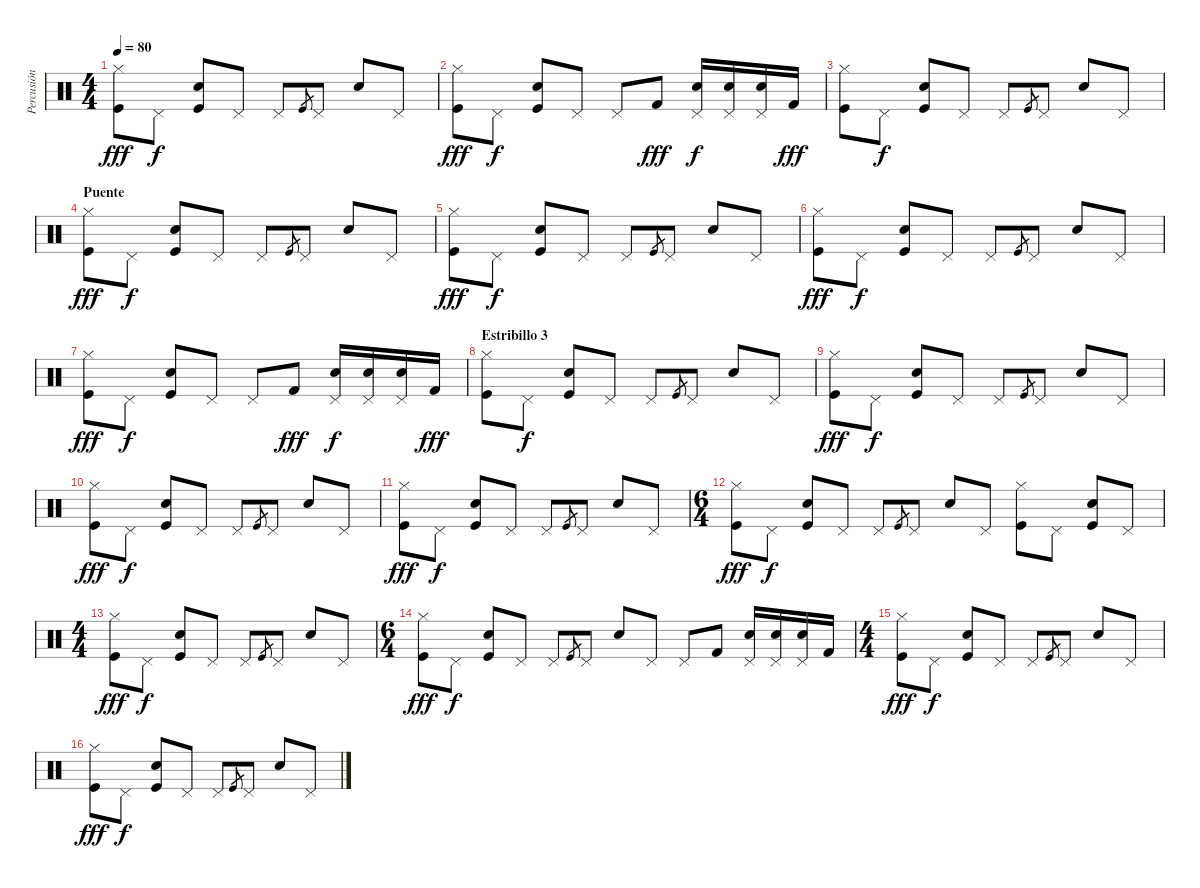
\track ("Percusión (Percussion)" "Percusión ") {instrument percussion}
\staff {score}
\articulation defaults
\ts (4 4)
\tempo 80
\clef neutral
\ks c
("Kick (hit)" "Hi-Hat (closed)").8{dy fff} "Pedal Hi-Hat (hit)".8{dy f} ("Snare (hit) 2" "Kick (hit)").8 "Pedal Hi-Hat (hit)".8 "Pedal Hi-Hat (hit)".8 "Kick (hit)".8{gr} "Pedal Hi-Hat (hit)".8 "Snare (hit) 2".8 "Pedal Hi-Hat (hit)".8 |
("Kick (hit)" "Hi-Hat (closed)").8{dy fff} "Pedal Hi-Hat (hit)".8{dy f} ("Snare (hit) 2" "Kick (hit)").8 "Pedal Hi-Hat (hit)".8 "Pedal Hi-Hat (hit)".8 "Kick (hit) 2".8{dy fff} ("Snare (hit) 2" "Pedal Hi-Hat (hit)").16{dy f} ("Snare (hit) 2" "Pedal Hi-Hat (hit)").16 ("Snare (hit) 2" "Pedal Hi-Hat (hit)").16 "Kick (hit) 2".16{dy fff} |
("Kick (hit)" "Hi-Hat (closed)").8 "Pedal Hi-Hat (hit)".8{dy f} ("Snare (hit) 2" "Kick (hit)").8 "Pedal Hi-Hat (hit)".8 "Pedal Hi-Hat (hit)".8 "Kick (hit)".8{gr} "Pedal Hi-Hat (hit)".8 "Snare (hit) 2".8 "Pedal Hi-Hat (hit)".8 |
\section ("" "Puente")
("Kick (hit)" "Hi-Hat (closed)").8{dy fff} "Pedal Hi-Hat (hit)".8{dy f} ("Snare (hit) 2" "Kick (hit)").8 "Pedal Hi-Hat (hit)".8 "Pedal Hi-Hat (hit)".8 "Kick (hit)".8{gr} "Pedal Hi-Hat (hit)".8 "Snare (hit) 2".8 "Pedal Hi-Hat (hit)".8 |
("Kick (hit)" "Hi-Hat (closed)").8{dy fff} "Pedal Hi-Hat (hit)".8{dy f} ("Snare (hit) 2" "Kick (hit)").8 "Pedal Hi-Hat (hit)".8 "Pedal Hi-Hat (hit)".8 "Kick (hit)".8{gr} "Pedal Hi-Hat (hit)".8 "Snare (hit) 2".8 "Pedal Hi-Hat (hit)".8 |
("Kick (hit)" "Hi-Hat (closed)").8{dy fff} "Pedal Hi-Hat (hit)".8{dy f} ("Snare (hit) 2" "Kick (hit)").8 "Pedal Hi-Hat (hit)".8 "Pedal Hi-Hat (hit)".8 "Kick (hit)".8{gr} "Pedal Hi-Hat (hit)".8 "Snare (hit) 2".8 "Pedal Hi-Hat (hit)".8 |
("Kick (hit)" "Hi-Hat (closed)").8{dy fff} "Pedal Hi-Hat (hit)".8{dy f} ("Snare (hit) 2" "Kick (hit)").8 "Pedal Hi-Hat (hit)".8 "Pedal Hi-Hat (hit)".8 "Kick (hit) 2".8{dy fff} ("Snare (hit) 2" "Pedal Hi-Hat (hit)").16{dy f} ("Snare (hit) 2" "Pedal Hi-Hat (hit)").16 ("Snare (hit) 2" "Pedal Hi-Hat (hit)").16 "Kick (hit) 2".16{dy fff} |
\section ("" "Estribillo 3")
("Kick (hit)" "Hi-Hat (closed)").8 "Pedal Hi-Hat (hit)".8{dy f} ("Snare (hit) 2" "Kick (hit)").8 "Pedal Hi-Hat (hit)".8 "Pedal Hi-Hat (hit)".8 "Kick (hit)".8{gr} "Pedal Hi-Hat (hit)".8 "Snare (hit) 2".8 "Pedal Hi-Hat (hit)".8 |
("Kick (hit)" "Hi-Hat (closed)").8{dy fff} "Pedal Hi-Hat (hit)".8{dy f} ("Snare (hit) 2" "Kick (hit)").8 "Pedal Hi-Hat (hit)".8 "Pedal Hi-Hat (hit)".8 "Kick (hit)".8{gr} "Pedal Hi-Hat (hit)".8 "Snare (hit) 2".8 "Pedal Hi-Hat (hit)".8 |
("Kick (hit)" "Hi-Hat (closed)").8{dy fff} "Pedal Hi-Hat (hit)".8{dy f} ("Snare (hit) 2" "Kick (hit)").8 "Pedal Hi-Hat (hit)".8 "Pedal Hi-Hat (hit)".8 "Kick (hit)".8{gr} "Pedal Hi-Hat (hit)".8 "Snare (hit) 2".8 "Pedal Hi-Hat (hit)".8 |
("Kick (hit)" "Hi-Hat (closed)").8{dy fff} "Pedal Hi-Hat (hit)".8{dy f} ("Snare (hit) 2" "Kick (hit)").8 "Pedal Hi-Hat (hit)".8 "Pedal Hi-Hat (hit)".8 "Kick (hit)".8{gr} "Pedal Hi-Hat (hit)".8 "Snare (hit) 2".8 "Pedal Hi-Hat (hit)".8 |
\ts (6 4)
("Kick (hit)" "Hi-Hat (closed)").8{dy fff} "Pedal Hi-Hat (hit)".8{dy f} ("Snare (hit) 2" "Kick (hit)").8 "Pedal Hi-Hat (hit)".8 "Pedal Hi-Hat (hit)".8 "Kick (hit)".8{gr} "Pedal Hi-Hat (hit)".8 "Snare (hit) 2".8 "Pedal Hi-Hat (hit)".8 ("Kick (hit)" "Hi-Hat (closed)").8 "Pedal Hi-Hat (hit)".8 ("Snare (hit) 2" "Kick (hit)").8 "Pedal Hi-Hat (hit)".8 |
\ts (4 4)
("Kick (hit)" "Hi-Hat (closed)").8{dy fff} "Pedal Hi-Hat (hit)".8{dy f} ("Snare (hit) 2" "Kick (hit)").8 "Pedal Hi-Hat (hit)".8 "Pedal Hi-Hat (hit)".8 "Kick (hit)".8{gr} "Pedal Hi-Hat (hit)".8 "Snare (hit) 2".8 "Pedal Hi-Hat (hit)".8 |
\ts (6 4)
("Kick (hit)" "Hi-Hat (closed)").8{dy fff} "Pedal Hi-Hat (hit)".8{dy f} ("Snare (hit) 2" "Kick (hit)").8 "Pedal Hi-Hat (hit)".8 "Pedal Hi-Hat (hit)".8 "Kick (hit)".8{gr} "Pedal Hi-Hat (hit)".8 "Snare (hit) 2".8 "Pedal Hi-Hat (hit)".8 "Pedal Hi-Hat (hit)".8 "Kick (hit) 2".8 ("Snare (hit) 2" "Pedal Hi-Hat (hit)").16 ("Snare (hit) 2" "Pedal Hi-Hat (hit)").16 ("Snare (hit) 2" "Pedal Hi-Hat (hit)").16 "Kick (hit) 2".16 |
\ts (4 4)
("Kick (hit)" "Hi-Hat (closed)").8{dy fff} "Pedal Hi-Hat (hit)".8{dy f} ("Snare (hit) 2" "Kick (hit)").8 "Pedal Hi-Hat (hit)".8 "Pedal Hi-Hat (hit)".8 "Kick (hit)".8{gr} "Pedal Hi-Hat (hit)".8 "Snare (hit) 2".8 "Pedal Hi-Hat (hit)".8 |
("Kick (hit)" "Hi-Hat (closed)").8{dy fff} "Pedal Hi-Hat (hit)".8{dy f} ("Snare (hit) 2" "Kick (hit)").8 "Pedal Hi-Hat (hit)".8 "Pedal Hi-Hat (hit)".8 "Kick (hit)".8{gr} "Pedal Hi-Hat (hit)".8 "Snare (hit) 2".8 "Pedal Hi-Hat (hit)".8
